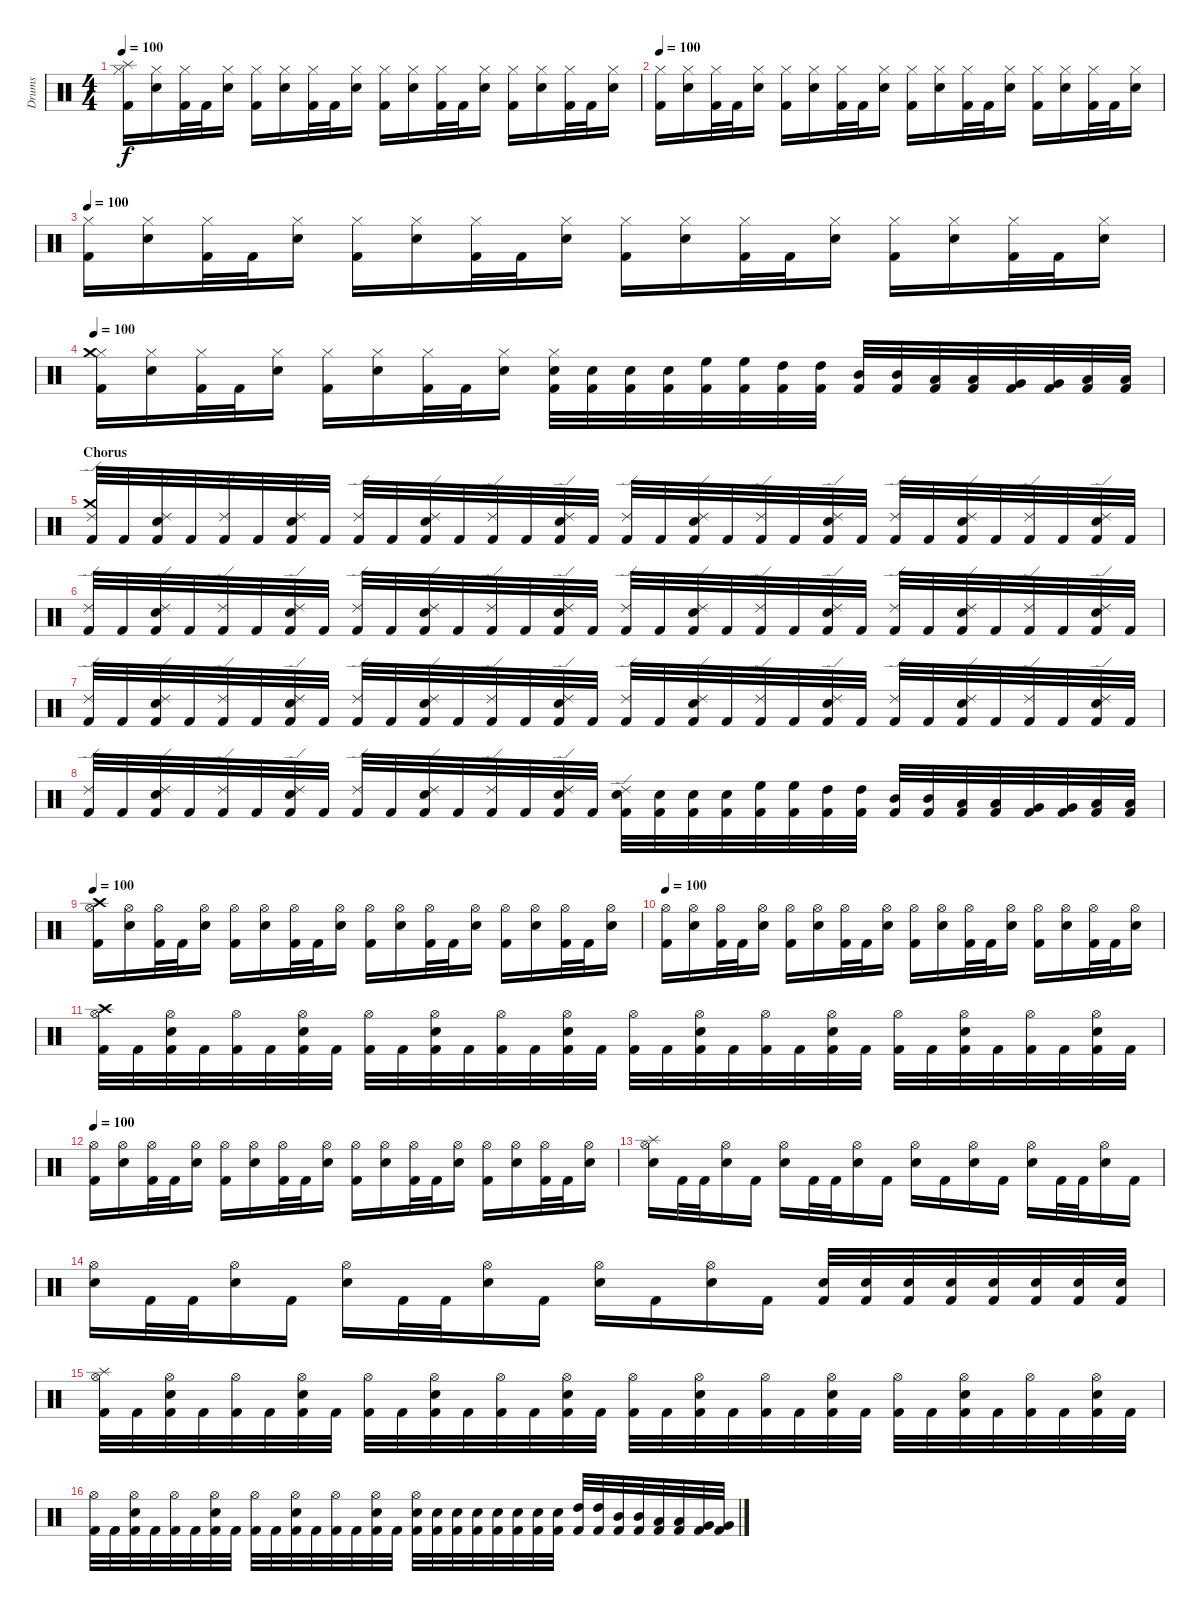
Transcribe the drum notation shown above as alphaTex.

\track ("Drums" "Drums") {instrument percussion}
\staff {score}
\articulation defaults
\ts (4 4)
\section ("" "")
\tempo 100
\clef neutral
\ks c
("Kick (hit) 2" "Hi-Hat (closed)" "Splash (hit)").16{dy f} ("Snare (hit) 2" "Hi-Hat (closed)").16 ("Kick (hit) 2" "Hi-Hat (closed)").32 "Kick (hit) 2".32 ("Snare (hit) 2" "Hi-Hat (closed)").16 ("Kick (hit) 2" "Hi-Hat (closed)").16 ("Snare (hit) 2" "Hi-Hat (closed)").16 ("Kick (hit) 2" "Hi-Hat (closed)").32 "Kick (hit) 2".32 ("Snare (hit) 2" "Hi-Hat (closed)").16 ("Kick (hit) 2" "Hi-Hat (closed)").16 ("Snare (hit) 2" "Hi-Hat (closed)").16 ("Kick (hit) 2" "Hi-Hat (closed)").32 "Kick (hit) 2".32 ("Snare (hit) 2" "Hi-Hat (closed)").16 ("Kick (hit) 2" "Hi-Hat (closed)").16 ("Snare (hit) 2" "Hi-Hat (closed)").16 ("Kick (hit) 2" "Hi-Hat (closed)").32 "Kick (hit) 2".32 ("Snare (hit) 2" "Hi-Hat (closed)").16 |
\tempo 100
("Kick (hit) 2" "Hi-Hat (closed)").16 ("Snare (hit) 2" "Hi-Hat (closed)").16 ("Kick (hit) 2" "Hi-Hat (closed)").32 "Kick (hit) 2".32 ("Snare (hit) 2" "Hi-Hat (closed)").16 ("Kick (hit) 2" "Hi-Hat (closed)").16 ("Snare (hit) 2" "Hi-Hat (closed)").16 ("Kick (hit) 2" "Hi-Hat (closed)").32 "Kick (hit) 2".32 ("Snare (hit) 2" "Hi-Hat (closed)").16 ("Kick (hit) 2" "Hi-Hat (closed)").16 ("Snare (hit) 2" "Hi-Hat (closed)").16 ("Kick (hit) 2" "Hi-Hat (closed)").32 "Kick (hit) 2".32 ("Snare (hit) 2" "Hi-Hat (closed)").16 ("Kick (hit) 2" "Hi-Hat (closed)").16 ("Snare (hit) 2" "Hi-Hat (closed)").16 ("Kick (hit) 2" "Hi-Hat (closed)").32 "Kick (hit) 2".32 ("Snare (hit) 2" "Hi-Hat (closed)").16 |
\tempo 100
("Kick (hit) 2" "Hi-Hat (closed)").16 ("Snare (hit) 2" "Hi-Hat (closed)").16 ("Kick (hit) 2" "Hi-Hat (closed)").32 "Kick (hit) 2".32 ("Snare (hit) 2" "Hi-Hat (closed)").16 ("Kick (hit) 2" "Hi-Hat (closed)").16 ("Snare (hit) 2" "Hi-Hat (closed)").16 ("Kick (hit) 2" "Hi-Hat (closed)").32 "Kick (hit) 2".32 ("Snare (hit) 2" "Hi-Hat (closed)").16 ("Kick (hit) 2" "Hi-Hat (closed)").16 ("Snare (hit) 2" "Hi-Hat (closed)").16 ("Kick (hit) 2" "Hi-Hat (closed)").32 "Kick (hit) 2".32 ("Snare (hit) 2" "Hi-Hat (closed)").16 ("Kick (hit) 2" "Hi-Hat (closed)").16 ("Snare (hit) 2" "Hi-Hat (closed)").16 ("Kick (hit) 2" "Hi-Hat (closed)").32 "Kick (hit) 2".32 ("Snare (hit) 2" "Hi-Hat (closed)").16 |
\tempo 100
("Kick (hit) 2" "Hi-Hat (closed)" "Crash medium (hit)").16 ("Snare (hit) 2" "Hi-Hat (closed)").16 ("Kick (hit) 2" "Hi-Hat (closed)").32 "Kick (hit) 2".32 ("Snare (hit) 2" "Hi-Hat (closed)").16 ("Kick (hit) 2" "Hi-Hat (closed)").16 ("Snare (hit) 2" "Hi-Hat (closed)").16 ("Kick (hit) 2" "Hi-Hat (closed)").32 "Kick (hit) 2".32 ("Snare (hit) 2" "Hi-Hat (closed)").16 ("Kick (hit) 2" "Snare (hit) 2" "Hi-Hat (closed)").32 ("Kick (hit) 2" "Snare (hit) 2").32 ("Kick (hit) 2" "Snare (hit) 2").32 ("Kick (hit) 2" "Snare (hit) 2").32 ("Kick (hit) 2" "High Floor Tom (hit)").32 ("Kick (hit) 2" "High Floor Tom (hit)").32 ("Kick (hit) 2" "High Tom (hit)").32 ("Kick (hit) 2" "High Tom (hit)").32 ("Kick (hit) 2" "Mid Tom (hit)").32 ("Kick (hit) 2" "Mid Tom (hit)").32 ("Kick (hit) 2" "Low Tom (hit)").32 ("Kick (hit) 2" "Low Tom (hit)").32 ("Kick (hit) 2" "Very Low Tom (hit)").32 ("Kick (hit) 2" "Very Low Tom (hit)").32 ("Kick (hit) 2" "Low Floor Tom (hit)").32 ("Kick (hit) 2" "Low Floor Tom (hit)").32 |
\section ("" "Chorus")
("Kick (hit) 2" "Ride (edge) 2" "Crash medium (hit)").32 "Kick (hit) 2".32 ("Kick (hit) 2" "Snare (hit) 2" "Ride (edge) 2").32 "Kick (hit) 2".32 ("Kick (hit) 2" "Ride (edge) 2").32 "Kick (hit) 2".32 ("Kick (hit) 2" "Snare (hit) 2" "Ride (edge) 2").32 "Kick (hit) 2".32 ("Kick (hit) 2" "Ride (edge) 2").32 "Kick (hit) 2".32 ("Kick (hit) 2" "Snare (hit) 2" "Ride (edge) 2").32 "Kick (hit) 2".32 ("Kick (hit) 2" "Ride (edge) 2").32 "Kick (hit) 2".32 ("Kick (hit) 2" "Snare (hit) 2" "Ride (edge) 2").32 "Kick (hit) 2".32 ("Kick (hit) 2" "Ride (edge) 2").32 "Kick (hit) 2".32 ("Kick (hit) 2" "Snare (hit) 2" "Ride (edge) 2").32 "Kick (hit) 2".32 ("Kick (hit) 2" "Ride (edge) 2").32 "Kick (hit) 2".32 ("Kick (hit) 2" "Snare (hit) 2" "Ride (edge) 2").32 "Kick (hit) 2".32 ("Kick (hit) 2" "Ride (edge) 2").32 "Kick (hit) 2".32 ("Kick (hit) 2" "Snare (hit) 2" "Ride (edge) 2").32 "Kick (hit) 2".32 ("Kick (hit) 2" "Ride (edge) 2").32 "Kick (hit) 2".32 ("Kick (hit) 2" "Snare (hit) 2" "Ride (edge) 2").32 "Kick (hit) 2".32 |
("Kick (hit) 2" "Ride (edge) 2").32 "Kick (hit) 2".32 ("Kick (hit) 2" "Snare (hit) 2" "Ride (edge) 2").32 "Kick (hit) 2".32 ("Kick (hit) 2" "Ride (edge) 2").32 "Kick (hit) 2".32 ("Kick (hit) 2" "Snare (hit) 2" "Ride (edge) 2").32 "Kick (hit) 2".32 ("Kick (hit) 2" "Ride (edge) 2").32 "Kick (hit) 2".32 ("Kick (hit) 2" "Snare (hit) 2" "Ride (edge) 2").32 "Kick (hit) 2".32 ("Kick (hit) 2" "Ride (edge) 2").32 "Kick (hit) 2".32 ("Kick (hit) 2" "Snare (hit) 2" "Ride (edge) 2").32 "Kick (hit) 2".32 ("Kick (hit) 2" "Ride (edge) 2").32 "Kick (hit) 2".32 ("Kick (hit) 2" "Snare (hit) 2" "Ride (edge) 2").32 "Kick (hit) 2".32 ("Kick (hit) 2" "Ride (edge) 2").32 "Kick (hit) 2".32 ("Kick (hit) 2" "Snare (hit) 2" "Ride (edge) 2").32 "Kick (hit) 2".32 ("Kick (hit) 2" "Ride (edge) 2").32 "Kick (hit) 2".32 ("Kick (hit) 2" "Snare (hit) 2" "Ride (edge) 2").32 "Kick (hit) 2".32 ("Kick (hit) 2" "Ride (edge) 2").32 "Kick (hit) 2".32 ("Kick (hit) 2" "Snare (hit) 2" "Ride (edge) 2").32 "Kick (hit) 2".32 |
("Kick (hit) 2" "Ride (edge) 2").32 "Kick (hit) 2".32 ("Kick (hit) 2" "Snare (hit) 2" "Ride (edge) 2").32 "Kick (hit) 2".32 ("Kick (hit) 2" "Ride (edge) 2").32 "Kick (hit) 2".32 ("Kick (hit) 2" "Snare (hit) 2" "Ride (edge) 2").32 "Kick (hit) 2".32 ("Kick (hit) 2" "Ride (edge) 2").32 "Kick (hit) 2".32 ("Kick (hit) 2" "Snare (hit) 2" "Ride (edge) 2").32 "Kick (hit) 2".32 ("Kick (hit) 2" "Ride (edge) 2").32 "Kick (hit) 2".32 ("Kick (hit) 2" "Snare (hit) 2" "Ride (edge) 2").32 "Kick (hit) 2".32 ("Kick (hit) 2" "Ride (edge) 2").32 "Kick (hit) 2".32 ("Kick (hit) 2" "Snare (hit) 2" "Ride (edge) 2").32 "Kick (hit) 2".32 ("Kick (hit) 2" "Ride (edge) 2").32 "Kick (hit) 2".32 ("Kick (hit) 2" "Snare (hit) 2" "Ride (edge) 2").32 "Kick (hit) 2".32 ("Kick (hit) 2" "Ride (edge) 2").32 "Kick (hit) 2".32 ("Kick (hit) 2" "Snare (hit) 2" "Ride (edge) 2").32 "Kick (hit) 2".32 ("Kick (hit) 2" "Ride (edge) 2").32 "Kick (hit) 2".32 ("Kick (hit) 2" "Snare (hit) 2" "Ride (edge) 2").32 "Kick (hit) 2".32 |
("Kick (hit) 2" "Ride (edge) 2").32 "Kick (hit) 2".32 ("Kick (hit) 2" "Snare (hit) 2" "Ride (edge) 2").32 "Kick (hit) 2".32 ("Kick (hit) 2" "Ride (edge) 2").32 "Kick (hit) 2".32 ("Kick (hit) 2" "Snare (hit) 2" "Ride (edge) 2").32 "Kick (hit) 2".32 ("Kick (hit) 2" "Ride (edge) 2").32 "Kick (hit) 2".32 ("Kick (hit) 2" "Snare (hit) 2" "Ride (edge) 2").32 "Kick (hit) 2".32 ("Kick (hit) 2" "Ride (edge) 2").32 "Kick (hit) 2".32 ("Kick (hit) 2" "Snare (hit) 2" "Ride (edge) 2").32 "Kick (hit) 2".32 ("Kick (hit) 2" "Snare (hit) 2" "Ride (edge) 2").32 ("Kick (hit) 2" "Snare (hit) 2").32 ("Kick (hit) 2" "Snare (hit) 2").32 ("Kick (hit) 2" "Snare (hit) 2").32 ("Kick (hit) 2" "High Floor Tom (hit)").32 ("Kick (hit) 2" "High Floor Tom (hit)").32 ("Kick (hit) 2" "High Tom (hit)").32 ("Kick (hit) 2" "High Tom (hit)").32 ("Kick (hit) 2" "Mid Tom (hit)").32 ("Kick (hit) 2" "Mid Tom (hit)").32 ("Kick (hit) 2" "Low Tom (hit)").32 ("Kick (hit) 2" "Low Tom (hit)").32 ("Kick (hit) 2" "Very Low Tom (hit)").32 ("Kick (hit) 2" "Very Low Tom (hit)").32 ("Kick (hit) 2" "Low Floor Tom (hit)").32 ("Kick (hit) 2" "Low Floor Tom (hit)").32 |
\section ("" "")
\tempo 100
("Kick (hit) 2" "Hi-Hat (open)" "Crash high (hit)").16 ("Snare (hit) 2" "Hi-Hat (open)").16 ("Kick (hit) 2" "Hi-Hat (open)").32 "Kick (hit) 2".32 ("Snare (hit) 2" "Hi-Hat (open)").16 ("Kick (hit) 2" "Hi-Hat (open)").16 ("Snare (hit) 2" "Hi-Hat (open)").16 ("Kick (hit) 2" "Hi-Hat (open)").32 "Kick (hit) 2".32 ("Snare (hit) 2" "Hi-Hat (open)").16 ("Kick (hit) 2" "Hi-Hat (open)").16 ("Snare (hit) 2" "Hi-Hat (open)").16 ("Kick (hit) 2" "Hi-Hat (open)").32 "Kick (hit) 2".32 ("Snare (hit) 2" "Hi-Hat (open)").16 ("Kick (hit) 2" "Hi-Hat (open)").16 ("Snare (hit) 2" "Hi-Hat (open)").16 ("Kick (hit) 2" "Hi-Hat (open)").32 "Kick (hit) 2".32 ("Snare (hit) 2" "Hi-Hat (open)").16 |
\tempo 100
("Kick (hit) 2" "Hi-Hat (open)").16 ("Snare (hit) 2" "Hi-Hat (open)").16 ("Kick (hit) 2" "Hi-Hat (open)").32 "Kick (hit) 2".32 ("Snare (hit) 2" "Hi-Hat (open)").16 ("Kick (hit) 2" "Hi-Hat (open)").16 ("Snare (hit) 2" "Hi-Hat (open)").16 ("Kick (hit) 2" "Hi-Hat (open)").32 "Kick (hit) 2".32 ("Snare (hit) 2" "Hi-Hat (open)").16 ("Kick (hit) 2" "Hi-Hat (open)").16 ("Snare (hit) 2" "Hi-Hat (open)").16 ("Kick (hit) 2" "Hi-Hat (open)").32 "Kick (hit) 2".32 ("Snare (hit) 2" "Hi-Hat (open)").16 ("Kick (hit) 2" "Hi-Hat (open)").16 ("Snare (hit) 2" "Hi-Hat (open)").16 ("Kick (hit) 2" "Hi-Hat (open)").32 "Kick (hit) 2".32 ("Snare (hit) 2" "Hi-Hat (open)").16 |
("Kick (hit) 2" "Hi-Hat (open)" "Crash high (hit)").32 "Kick (hit) 2".32 ("Kick (hit) 2" "Snare (hit) 2" "Hi-Hat (open)").32 "Kick (hit) 2".32 ("Kick (hit) 2" "Hi-Hat (open)").32 "Kick (hit) 2".32 ("Kick (hit) 2" "Snare (hit) 2" "Hi-Hat (open)").32 "Kick (hit) 2".32 ("Kick (hit) 2" "Hi-Hat (open)").32 "Kick (hit) 2".32 ("Kick (hit) 2" "Snare (hit) 2" "Hi-Hat (open)").32 "Kick (hit) 2".32 ("Kick (hit) 2" "Hi-Hat (open)").32 "Kick (hit) 2".32 ("Kick (hit) 2" "Snare (hit) 2" "Hi-Hat (open)").32 "Kick (hit) 2".32 ("Kick (hit) 2" "Hi-Hat (open)").32 "Kick (hit) 2".32 ("Kick (hit) 2" "Snare (hit) 2" "Hi-Hat (open)").32 "Kick (hit) 2".32 ("Kick (hit) 2" "Hi-Hat (open)").32 "Kick (hit) 2".32 ("Kick (hit) 2" "Snare (hit) 2" "Hi-Hat (open)").32 "Kick (hit) 2".32 ("Kick (hit) 2" "Hi-Hat (open)").32 "Kick (hit) 2".32 ("Kick (hit) 2" "Snare (hit) 2" "Hi-Hat (open)").32 "Kick (hit) 2".32 ("Kick (hit) 2" "Hi-Hat (open)").32 "Kick (hit) 2".32 ("Kick (hit) 2" "Snare (hit) 2" "Hi-Hat (open)").32 "Kick (hit) 2".32 |
\tempo 100
("Kick (hit) 2" "Hi-Hat (open)").16 ("Snare (hit) 2" "Hi-Hat (open)").16 ("Kick (hit) 2" "Hi-Hat (open)").32 "Kick (hit) 2".32 ("Snare (hit) 2" "Hi-Hat (open)").16 ("Kick (hit) 2" "Hi-Hat (open)").16 ("Snare (hit) 2" "Hi-Hat (open)").16 ("Kick (hit) 2" "Hi-Hat (open)").32 "Kick (hit) 2".32 ("Snare (hit) 2" "Hi-Hat (open)").16 ("Kick (hit) 2" "Hi-Hat (open)").16 ("Snare (hit) 2" "Hi-Hat (open)").16 ("Kick (hit) 2" "Hi-Hat (open)").32 "Kick (hit) 2".32 ("Snare (hit) 2" "Hi-Hat (open)").16 ("Kick (hit) 2" "Hi-Hat (open)").16 ("Snare (hit) 2" "Hi-Hat (open)").16 ("Kick (hit) 2" "Hi-Hat (open)").32 "Kick (hit) 2".32 ("Snare (hit) 2" "Hi-Hat (open)").16 |
\section ("" "")
("Snare (hit) 2" "Hi-Hat (open)" "Splash (hit)").16 "Kick (hit) 2".32 "Kick (hit) 2".32 ("Snare (hit) 2" "Hi-Hat (open)").16 "Kick (hit) 2".16 ("Snare (hit) 2" "Hi-Hat (open)").16 "Kick (hit) 2".32 "Kick (hit) 2".32 ("Snare (hit) 2" "Hi-Hat (open)").16 "Kick (hit) 2".16 ("Snare (hit) 2" "Hi-Hat (open)").16 "Kick (hit) 2".16 ("Snare (hit) 2" "Hi-Hat (open)").16 "Kick (hit) 2".16 ("Snare (hit) 2" "Hi-Hat (open)").16 "Kick (hit) 2".32 "Kick (hit) 2".32 ("Snare (hit) 2" "Hi-Hat (open)").16 "Kick (hit) 2".16 |
("Snare (hit) 2" "Hi-Hat (open)").16 "Kick (hit) 2".32 "Kick (hit) 2".32 ("Snare (hit) 2" "Hi-Hat (open)").16 "Kick (hit) 2".16 ("Snare (hit) 2" "Hi-Hat (open)").16 "Kick (hit) 2".32 "Kick (hit) 2".32 ("Snare (hit) 2" "Hi-Hat (open)").16 "Kick (hit) 2".16 ("Snare (hit) 2" "Hi-Hat (open)").16 "Kick (hit) 2".16 ("Snare (hit) 2" "Hi-Hat (open)").16 "Kick (hit) 2".16 ("Kick (hit) 2" "Snare (hit) 2").32 ("Kick (hit) 2" "Snare (hit) 2").32 ("Kick (hit) 2" "Snare (hit) 2").32 ("Kick (hit) 2" "Snare (hit) 2").32 ("Kick (hit) 2" "Snare (hit) 2").32 ("Kick (hit) 2" "Snare (hit) 2").32 ("Kick (hit) 2" "Snare (hit) 2").32 ("Kick (hit) 2" "Snare (hit) 2").32 |
("Kick (hit) 2" "Hi-Hat (open)" "Splash (hit)").32 "Kick (hit) 2".32 ("Kick (hit) 2" "Snare (hit) 2" "Hi-Hat (open)").32 "Kick (hit) 2".32 ("Kick (hit) 2" "Hi-Hat (open)").32 "Kick (hit) 2".32 ("Kick (hit) 2" "Snare (hit) 2" "Hi-Hat (open)").32 "Kick (hit) 2".32 ("Kick (hit) 2" "Hi-Hat (open)").32 "Kick (hit) 2".32 ("Kick (hit) 2" "Snare (hit) 2" "Hi-Hat (open)").32 "Kick (hit) 2".32 ("Kick (hit) 2" "Hi-Hat (open)").32 "Kick (hit) 2".32 ("Kick (hit) 2" "Snare (hit) 2" "Hi-Hat (open)").32 "Kick (hit) 2".32 ("Kick (hit) 2" "Hi-Hat (open)").32 "Kick (hit) 2".32 ("Kick (hit) 2" "Snare (hit) 2" "Hi-Hat (open)").32 "Kick (hit) 2".32 ("Kick (hit) 2" "Hi-Hat (open)").32 "Kick (hit) 2".32 ("Kick (hit) 2" "Snare (hit) 2" "Hi-Hat (open)").32 "Kick (hit) 2".32 ("Kick (hit) 2" "Hi-Hat (open)").32 "Kick (hit) 2".32 ("Kick (hit) 2" "Snare (hit) 2" "Hi-Hat (open)").32 "Kick (hit) 2".32 ("Kick (hit) 2" "Hi-Hat (open)").32 "Kick (hit) 2".32 ("Kick (hit) 2" "Snare (hit) 2" "Hi-Hat (open)").32 "Kick (hit) 2".32 |
("Kick (hit) 2" "Hi-Hat (open)").32 "Kick (hit) 2".32 ("Kick (hit) 2" "Snare (hit) 2" "Hi-Hat (open)").32 "Kick (hit) 2".32 ("Kick (hit) 2" "Hi-Hat (open)").32 "Kick (hit) 2".32 ("Kick (hit) 2" "Snare (hit) 2" "Hi-Hat (open)").32 "Kick (hit) 2".32 ("Kick (hit) 2" "Hi-Hat (open)").32 "Kick (hit) 2".32 ("Kick (hit) 2" "Snare (hit) 2" "Hi-Hat (open)").32 "Kick (hit) 2".32 ("Kick (hit) 2" "Hi-Hat (open)").32 "Kick (hit) 2".32 ("Kick (hit) 2" "Snare (hit) 2" "Hi-Hat (open)").32 "Kick (hit) 2".32 ("Kick (hit) 2" "Snare (hit) 2" "Hi-Hat (open)").32 ("Kick (hit) 2" "Snare (hit) 2").32 ("Kick (hit) 2" "Snare (hit) 2").32 ("Kick (hit) 2" "Snare (hit) 2").32 ("Kick (hit) 2" "Snare (hit) 2").32 ("Kick (hit) 2" "Snare (hit) 2").32 ("Kick (hit) 2" "Snare (hit) 2").32 ("Kick (hit) 2" "Snare (hit) 2").32 ("Kick (hit) 2" "High Tom (hit)").32 ("Kick (hit) 2" "High Tom (hit)").32 ("Kick (hit) 2" "Mid Tom (hit)").32 ("Kick (hit) 2" "Mid Tom (hit)").32 ("Kick (hit) 2" "Low Tom (hit)").32 ("Kick (hit) 2" "Low Tom (hit)").32 ("Kick (hit) 2" "Very Low Tom (hit)").32 ("Kick (hit) 2" "Very Low Tom (hit)").32
